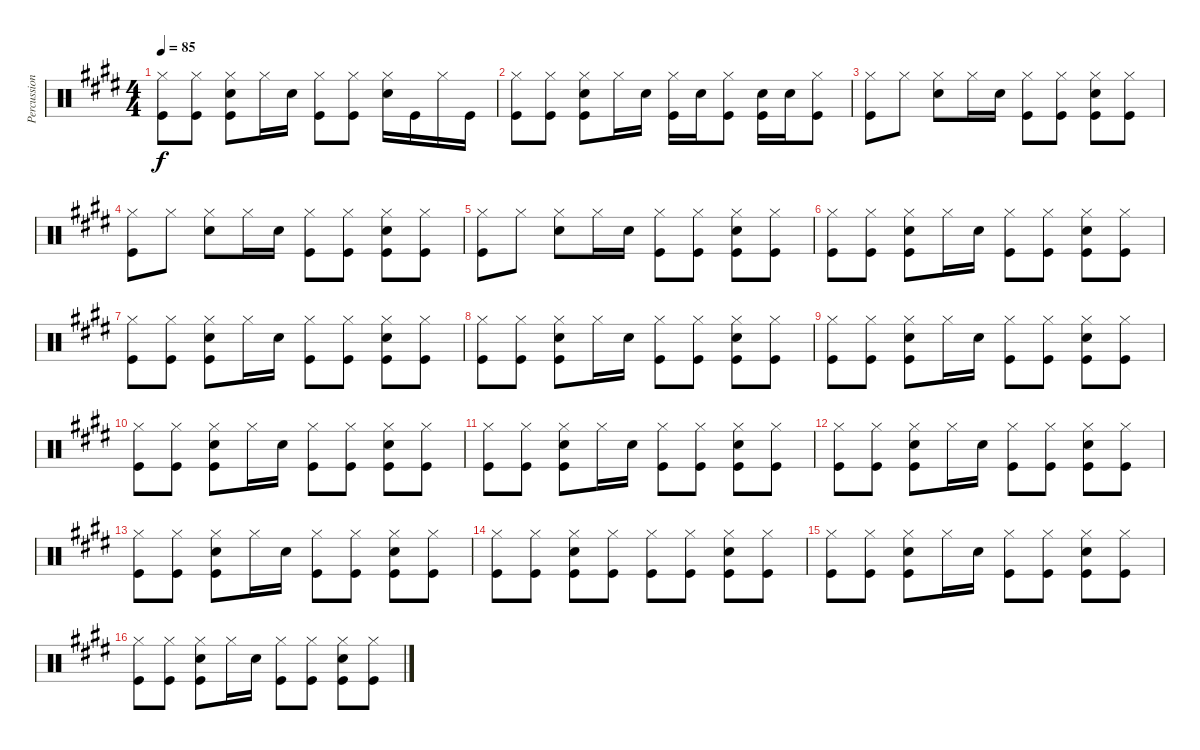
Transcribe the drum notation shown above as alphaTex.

\track ("Percussion" "Percussion") {instrument percussion}
\staff {score}
\articulation defaults
\ts (4 4)
\tempo 85
\clef neutral
\ks e
("Hi-Hat (closed)" "Kick (hit)").8{dy f} ("Hi-Hat (closed)" "Kick (hit)").8 ("Hi-Hat (closed)" "Snare (hit) 2" "Kick (hit)").8 "Hi-Hat (closed)".16 "Snare (hit) 2".16 ("Hi-Hat (closed)" "Kick (hit)").8 ("Hi-Hat (closed)" "Kick (hit)").8 ("Hi-Hat (closed)" "Snare (hit) 2").16 "Kick (hit)".16 "Hi-Hat (closed)".16 "Kick (hit)".16 |
("Hi-Hat (closed)" "Kick (hit)").8 ("Hi-Hat (closed)" "Kick (hit)").8 ("Hi-Hat (closed)" "Snare (hit) 2" "Kick (hit)").8 "Hi-Hat (closed)".16 "Snare (hit) 2".16 ("Hi-Hat (closed)" "Kick (hit)").16 "Snare (hit) 2".16 ("Hi-Hat (closed)" "Kick (hit)").8 ("Snare (hit) 2" "Kick (hit)").16 "Snare (hit) 2".16 ("Hi-Hat (closed)" "Kick (hit)").8 |
("Hi-Hat (closed)" "Kick (hit)").8 "Hi-Hat (closed)".8 ("Hi-Hat (closed)" "Snare (hit) 2").8 "Hi-Hat (closed)".16 "Snare (hit) 2".16 ("Hi-Hat (closed)" "Kick (hit)").8 ("Hi-Hat (closed)" "Kick (hit)").8 ("Hi-Hat (closed)" "Snare (hit) 2" "Kick (hit)").8 ("Hi-Hat (closed)" "Kick (hit)").8 |
("Hi-Hat (closed)" "Kick (hit)").8 "Hi-Hat (closed)".8 ("Hi-Hat (closed)" "Snare (hit) 2").8 "Hi-Hat (closed)".16 "Snare (hit) 2".16 ("Hi-Hat (closed)" "Kick (hit)").8 ("Hi-Hat (closed)" "Kick (hit)").8 ("Hi-Hat (closed)" "Snare (hit) 2" "Kick (hit)").8 ("Hi-Hat (closed)" "Kick (hit)").8 |
("Hi-Hat (closed)" "Kick (hit)").8 "Hi-Hat (closed)".8 ("Hi-Hat (closed)" "Snare (hit) 2").8 "Hi-Hat (closed)".16 "Snare (hit) 2".16 ("Hi-Hat (closed)" "Kick (hit)").8 ("Hi-Hat (closed)" "Kick (hit)").8 ("Hi-Hat (closed)" "Snare (hit) 2" "Kick (hit)").8 ("Hi-Hat (closed)" "Kick (hit)").8 |
("Hi-Hat (closed)" "Kick (hit)").8 ("Hi-Hat (closed)" "Kick (hit)").8 ("Hi-Hat (closed)" "Snare (hit) 2" "Kick (hit)").8 "Hi-Hat (closed)".16 "Snare (hit) 2".16 ("Hi-Hat (closed)" "Kick (hit)").8 ("Hi-Hat (closed)" "Kick (hit)").8 ("Hi-Hat (closed)" "Snare (hit) 2" "Kick (hit)").8 ("Hi-Hat (closed)" "Kick (hit)").8 |
("Hi-Hat (closed)" "Kick (hit)").8 ("Hi-Hat (closed)" "Kick (hit)").8 ("Hi-Hat (closed)" "Snare (hit) 2" "Kick (hit)").8 "Hi-Hat (closed)".16 "Snare (hit) 2".16 ("Hi-Hat (closed)" "Kick (hit)").8 ("Hi-Hat (closed)" "Kick (hit)").8 ("Hi-Hat (closed)" "Snare (hit) 2" "Kick (hit)").8 ("Hi-Hat (closed)" "Kick (hit)").8 |
("Hi-Hat (closed)" "Kick (hit)").8 ("Hi-Hat (closed)" "Kick (hit)").8 ("Hi-Hat (closed)" "Snare (hit) 2" "Kick (hit)").8 "Hi-Hat (closed)".16 "Snare (hit) 2".16 ("Hi-Hat (closed)" "Kick (hit)").8 ("Hi-Hat (closed)" "Kick (hit)").8 ("Hi-Hat (closed)" "Snare (hit) 2" "Kick (hit)").8 ("Hi-Hat (closed)" "Kick (hit)").8 |
("Hi-Hat (closed)" "Kick (hit)").8 ("Hi-Hat (closed)" "Kick (hit)").8 ("Hi-Hat (closed)" "Snare (hit) 2" "Kick (hit)").8 "Hi-Hat (closed)".16 "Snare (hit) 2".16 ("Hi-Hat (closed)" "Kick (hit)").8 ("Hi-Hat (closed)" "Kick (hit)").8 ("Hi-Hat (closed)" "Snare (hit) 2" "Kick (hit)").8 ("Hi-Hat (closed)" "Kick (hit)").8 |
("Hi-Hat (closed)" "Kick (hit)").8 ("Hi-Hat (closed)" "Kick (hit)").8 ("Hi-Hat (closed)" "Snare (hit) 2" "Kick (hit)").8 "Hi-Hat (closed)".16 "Snare (hit) 2".16 ("Hi-Hat (closed)" "Kick (hit)").8 ("Hi-Hat (closed)" "Kick (hit)").8 ("Hi-Hat (closed)" "Snare (hit) 2" "Kick (hit)").8 ("Hi-Hat (closed)" "Kick (hit)").8 |
("Hi-Hat (closed)" "Kick (hit)").8 ("Hi-Hat (closed)" "Kick (hit)").8 ("Hi-Hat (closed)" "Snare (hit) 2" "Kick (hit)").8 "Hi-Hat (closed)".16 "Snare (hit) 2".16 ("Hi-Hat (closed)" "Kick (hit)").8 ("Hi-Hat (closed)" "Kick (hit)").8 ("Hi-Hat (closed)" "Snare (hit) 2" "Kick (hit)").8 ("Hi-Hat (closed)" "Kick (hit)").8 |
("Hi-Hat (closed)" "Kick (hit)").8 ("Hi-Hat (closed)" "Kick (hit)").8 ("Hi-Hat (closed)" "Snare (hit) 2" "Kick (hit)").8 "Hi-Hat (closed)".16 "Snare (hit) 2".16 ("Hi-Hat (closed)" "Kick (hit)").8 ("Hi-Hat (closed)" "Kick (hit)").8 ("Hi-Hat (closed)" "Snare (hit) 2" "Kick (hit)").8 ("Hi-Hat (closed)" "Kick (hit)").8 |
("Hi-Hat (closed)" "Kick (hit)").8 ("Hi-Hat (closed)" "Kick (hit)").8 ("Hi-Hat (closed)" "Snare (hit) 2" "Kick (hit)").8 "Hi-Hat (closed)".16 "Snare (hit) 2".16 ("Hi-Hat (closed)" "Kick (hit)").8 ("Hi-Hat (closed)" "Kick (hit)").8 ("Hi-Hat (closed)" "Snare (hit) 2" "Kick (hit)").8 ("Hi-Hat (closed)" "Kick (hit)").8 |
("Hi-Hat (closed)" "Kick (hit)").8 ("Hi-Hat (closed)" "Kick (hit)").8 ("Hi-Hat (closed)" "Snare (hit) 2" "Kick (hit)").8 ("Hi-Hat (closed)" "Kick (hit)").8 ("Hi-Hat (closed)" "Kick (hit)").8 ("Hi-Hat (closed)" "Kick (hit)").8 ("Hi-Hat (closed)" "Snare (hit) 2" "Kick (hit)").8 ("Hi-Hat (closed)" "Kick (hit)").8 |
("Hi-Hat (closed)" "Kick (hit)").8 ("Hi-Hat (closed)" "Kick (hit)").8 ("Hi-Hat (closed)" "Snare (hit) 2" "Kick (hit)").8 "Hi-Hat (closed)".16 "Snare (hit) 2".16 ("Hi-Hat (closed)" "Kick (hit)").8 ("Hi-Hat (closed)" "Kick (hit)").8 ("Hi-Hat (closed)" "Snare (hit) 2" "Kick (hit)").8 ("Hi-Hat (closed)" "Kick (hit)").8 |
("Hi-Hat (closed)" "Kick (hit)").8 ("Hi-Hat (closed)" "Kick (hit)").8 ("Hi-Hat (closed)" "Snare (hit) 2" "Kick (hit)").8 "Hi-Hat (closed)".16 "Snare (hit) 2".16 ("Hi-Hat (closed)" "Kick (hit)").8 ("Hi-Hat (closed)" "Kick (hit)").8 ("Hi-Hat (closed)" "Snare (hit) 2" "Kick (hit)").8 ("Hi-Hat (closed)" "Kick (hit)").8
